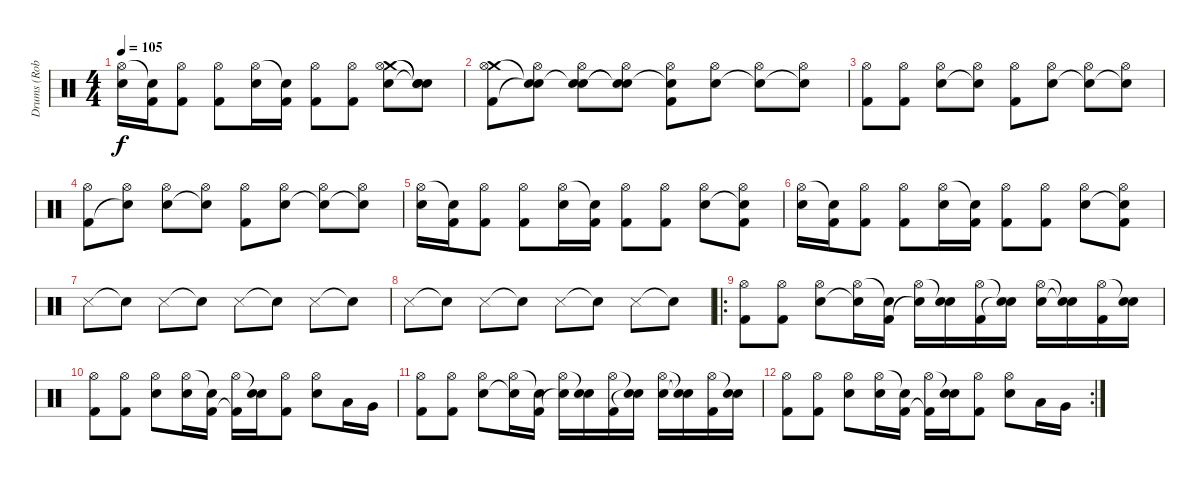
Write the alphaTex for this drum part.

\track ("Drums (Rob Bourdon)" "Drums (Rob") {instrument percussion}
\staff {score}
\articulation defaults
\ts (4 4)
\tempo 105
\clef neutral
\ks c
("Hi-Hat (open)" "Electric Snare (hit)").16{dy f} ("Snare (hit)"{t} "Kick (hit) 2").16 ("Hi-Hat (open)" "Kick (hit) 2").8 ("Hi-Hat (open)" "Kick (hit) 2").8 ("Hi-Hat (open)" "Electric Snare (hit)").16 ("Snare (hit)"{t} "Kick (hit) 2").16 ("Hi-Hat (open)" "Kick (hit) 2").8 ("Hi-Hat (open)" "Kick (hit) 2").8 ("Crash medium (hit)" "Hi-Hat (open)" "Electric Snare (hit)").8 ("Snare (hit)"{t} "Snare (hit)"{t} "Snare (hit)"{t}).8 |
("Crash medium (hit)" "Hi-Hat (open)" "Kick (hit) 2").8 ("Snare (hit)"{t} "Hi-Hat (open)" "Snare (hit)"{t}).8 ("Snare (hit)"{t} "Hi-Hat (open)" "Electric Snare (hit)").8 ("Snare (hit)"{t} "Hi-Hat (open)" "Snare (hit)"{t}).8 ("Snare (hit)"{t} "Hi-Hat (open)" "Kick (hit) 2").8 ("Hi-Hat (open)" "Electric Snare (hit)").8 ("Hi-Hat (open)" "Snare (hit)"{t}).8 ("Hi-Hat (open)" "Snare (hit)"{t}).8 |
("Hi-Hat (open)" "Kick (hit) 2").8 ("Hi-Hat (open)" "Kick (hit) 2").8 ("Hi-Hat (open)" "Electric Snare (hit)").8 ("Hi-Hat (open)" "Snare (hit)"{t}).8 ("Hi-Hat (open)" "Kick (hit) 2").8 ("Hi-Hat (open)" "Electric Snare (hit)").8 ("Hi-Hat (open)" "Snare (hit)"{t}).8 ("Hi-Hat (open)" "Snare (hit)"{t}).8 |
("Hi-Hat (open)" "Kick (hit) 2").8 ("Hi-Hat (open)" "Snare (hit)"{t}).8 ("Hi-Hat (open)" "Electric Snare (hit)").8 ("Hi-Hat (open)" "Snare (hit)"{t}).8 ("Hi-Hat (open)" "Kick (hit) 2").8 ("Hi-Hat (open)" "Electric Snare (hit)").8 ("Hi-Hat (open)" "Snare (hit)"{t}).8 ("Hi-Hat (open)" "Snare (hit)"{t}).8 |
("Hi-Hat (open)" "Electric Snare (hit)").16 ("Snare (hit)"{t} "Kick (hit) 2").16 ("Hi-Hat (open)" "Kick (hit) 2").8 ("Hi-Hat (open)" "Kick (hit) 2").8 ("Hi-Hat (open)" "Electric Snare (hit)").16 ("Snare (hit)"{t} "Kick (hit) 2").16 ("Hi-Hat (open)" "Kick (hit) 2").8 ("Hi-Hat (open)" "Kick (hit) 2").8 ("Hi-Hat (open)" "Electric Snare (hit)").8 ("Hi-Hat (open)" "Snare (hit)"{t} "Kick (hit) 2").8 |
("Hi-Hat (open)" "Electric Snare (hit)").16 ("Snare (hit)"{t} "Kick (hit) 2").16 ("Hi-Hat (open)" "Kick (hit) 2").8 ("Hi-Hat (open)" "Kick (hit) 2").8 ("Hi-Hat (open)" "Electric Snare (hit)").16 ("Snare (hit)"{t} "Kick (hit) 2").16 ("Hi-Hat (open)" "Kick (hit) 2").8 ("Hi-Hat (open)" "Kick (hit) 2").8 ("Hi-Hat (open)" "Electric Snare (hit)").8 ("Hi-Hat (open)" "Snare (hit)"{t} "Kick (hit) 2").8 |
"Snare (side stick) 3".8 "Snare (hit)"{t}.8 "Snare (side stick) 3".8 "Snare (hit)"{t}.8 "Snare (side stick) 3".8 "Snare (hit)"{t}.8 "Snare (side stick) 3".8 "Snare (hit)"{t}.8 |
"Snare (side stick) 3".8 "Snare (hit)"{t}.8 "Snare (side stick) 3".8 "Snare (hit)"{t}.8 "Snare (side stick) 3".8 "Snare (hit)"{t}.8 "Snare (side stick) 3".8 "Snare (hit)"{t}.8 |
\ro
("Hi-Hat (open)" "Kick (hit) 2").8 ("Hi-Hat (open)" "Kick (hit) 2").8 ("Hi-Hat (open)" "Electric Snare (hit)").8 ("Hi-Hat (open)" "Snare (hit)"{t}).16 ("Snare (hit)"{t} "Kick (hit) 2").16 ("Hi-Hat (open)" "Snare (hit)"{t}).16 ("Snare (hit)"{t} "Electric Snare (hit)").16 ("Hi-Hat (open)" "Kick (hit) 2").16 ("Snare (hit)"{t} "Snare (hit)"{t}).16 ("Hi-Hat (open)" "Electric Snare (hit)").16 ("Snare (hit)"{t} "Snare (hit)"{t}).16 ("Hi-Hat (open)" "Kick (hit) 2").16 ("Snare (hit)"{t} "Electric Snare (hit)").16 |
("Hi-Hat (open)" "Kick (hit) 2").8 ("Hi-Hat (open)" "Kick (hit) 2").8 ("Hi-Hat (open)" "Electric Snare (hit)").8 ("Hi-Hat (open)" "Electric Snare (hit)").16 ("Snare (hit)"{t} "Kick (hit) 2").16 ("Hi-Hat (open)" "Kick (hit) 2"{t}).16 ("Snare (hit)"{t} "Electric Snare (hit)").16 ("Hi-Hat (open)" "Kick (hit) 2").8 ("Hi-Hat (open)" "Electric Snare (hit)").8 "Low Tom (hit)".16 "Very Low Tom (hit)".16 |
("Hi-Hat (open)" "Kick (hit) 2").8 ("Hi-Hat (open)" "Kick (hit) 2").8 ("Hi-Hat (open)" "Electric Snare (hit)").8 ("Hi-Hat (open)" "Snare (hit)"{t}).16 ("Snare (hit)"{t} "Kick (hit) 2").16 ("Hi-Hat (open)" "Snare (hit)"{t}).16 ("Snare (hit)"{t} "Electric Snare (hit)").16 ("Hi-Hat (open)" "Kick (hit) 2").16 ("Snare (hit)"{t} "Snare (hit)"{t}).16 ("Hi-Hat (open)" "Electric Snare (hit)").16 ("Snare (hit)"{t} "Snare (hit)"{t}).16 ("Hi-Hat (open)" "Kick (hit) 2").16 ("Snare (hit)"{t} "Electric Snare (hit)").16 |
\rc 2
("Hi-Hat (open)" "Kick (hit) 2").8 ("Hi-Hat (open)" "Kick (hit) 2").8 ("Hi-Hat (open)" "Electric Snare (hit)").8 ("Hi-Hat (open)" "Electric Snare (hit)").16 ("Snare (hit)"{t} "Kick (hit) 2").16 ("Hi-Hat (open)" "Kick (hit) 2"{t}).16 ("Snare (hit)"{t} "Electric Snare (hit)").16 ("Hi-Hat (open)" "Kick (hit) 2").8 ("Hi-Hat (open)" "Electric Snare (hit)").8 "Low Tom (hit)".16 "Very Low Tom (hit)".16
